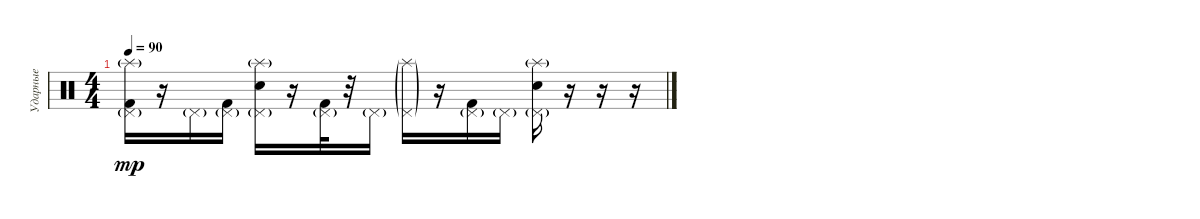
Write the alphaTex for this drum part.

\track ("Ударные" "Ударные") {instrument percussion}
\staff {score}
\articulation defaults
\ts (4 4)
\tempo 90
\clef neutral
\ks c
("Splash (hit)"{g} "Pedal Hi-Hat (hit)"{g} "Kick (hit) 2").16{dy mp} r.16 "Pedal Hi-Hat (hit)"{g}.16 ("Pedal Hi-Hat (hit)"{g} "Kick (hit) 2").16 ("Splash (hit)"{g} "Pedal Hi-Hat (hit)"{g} "Snare (hit) 2").16 r.16 ("Pedal Hi-Hat (hit)"{g} "Kick (hit) 2").32 r.32 "Pedal Hi-Hat (hit)"{g}.16 ("Splash (hit)"{g} "Pedal Hi-Hat (hit)"{g}).16 r.16 ("Pedal Hi-Hat (hit)"{g} "Kick (hit) 2").16 "Pedal Hi-Hat (hit)"{g}.16 ("Splash (hit)"{g} "Pedal Hi-Hat (hit)"{g} "Snare (hit) 2").16 r.16 r.16 r.16
